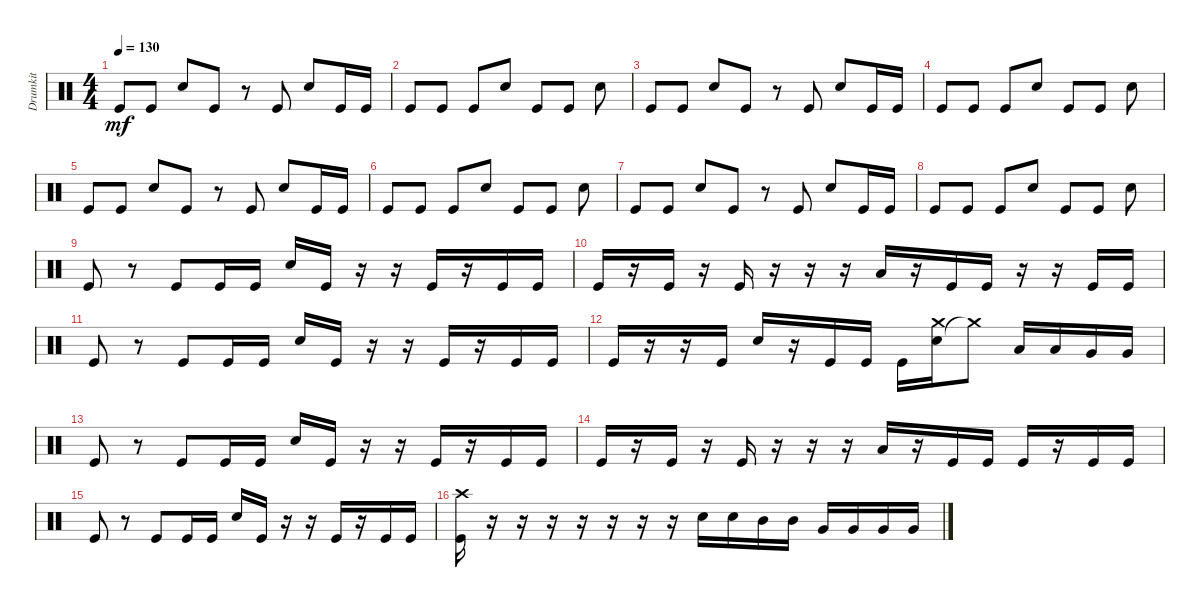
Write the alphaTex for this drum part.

\track ("Drumkit" "Drumkit") {instrument percussion}
\staff {score}
\articulation defaults
\ts (4 4)
\tempo 130
\clef neutral
\ks c "Kick (hit)".8{dy mf} "Kick (hit)".8 "Snare (hit) 2".8 "Kick (hit)".8
r.8 "Kick (hit)".8 "Snare (hit) 2".8 "Kick (hit)".16 "Kick (hit)".16 |
"Kick (hit)".8 "Kick (hit)".8 "Kick (hit)".8 "Snare (hit) 2".8 "Kick (hit)".8 "Kick (hit)".8 "Snare (hit) 2".8 |
"Kick (hit)".8 "Kick (hit)".8 "Snare (hit) 2".8 "Kick (hit)".8 r.8 "Kick (hit)".8 "Snare (hit) 2".8 "Kick (hit)".16 "Kick (hit)".16 |
"Kick (hit)".8 "Kick (hit)".8 "Kick (hit)".8 "Snare (hit) 2".8 "Kick (hit)".8 "Kick (hit)".8 "Snare (hit) 2".8 |
"Kick (hit)".8 "Kick (hit)".8 "Snare (hit) 2".8 "Kick (hit)".8 r.8 "Kick (hit)".8 "Snare (hit) 2".8 "Kick (hit)".16 "Kick (hit)".16 |
"Kick (hit)".8 "Kick (hit)".8 "Kick (hit)".8 "Snare (hit) 2".8 "Kick (hit)".8 "Kick (hit)".8 "Snare (hit) 2".8 |
"Kick (hit)".8 "Kick (hit)".8 "Snare (hit) 2".8 "Kick (hit)".8 r.8 "Kick (hit)".8 "Snare (hit) 2".8 "Kick (hit)".16 "Kick (hit)".16 |
"Kick (hit)".8 "Kick (hit)".8 "Kick (hit)".8 "Snare (hit) 2".8 "Kick (hit)".8 "Kick (hit)".8 "Snare (hit) 2".8 |
"Kick (hit)".8 r.8 "Kick (hit)".8 "Kick (hit)".16 "Kick (hit)".16 "Snare (hit) 2".16 "Kick (hit)".16 r.16 r.16 "Kick (hit)".16 r.16 "Kick (hit)".16 "Kick (hit)".16 |
"Kick (hit)".16 r.16 "Kick (hit)".16 r.16 "Kick (hit)".16 r.16 r.16 r.16 "Low Tom (hit)".16 r.16 "Kick (hit)".16 "Kick (hit)".16 r.16 r.16 "Kick (hit)".16 "Kick (hit)".16 |
"Kick (hit)".8 r.8 "Kick (hit)".8 "Kick (hit)".16 "Kick (hit)".16 "Snare (hit) 2".16 "Kick (hit)".16 r.16 r.16 "Kick (hit)".16 r.16 "Kick (hit)".16 "Kick (hit)".16 |
"Kick (hit)".16 r.16 r.16 "Kick (hit)".16 "Snare (hit) 2".16 r.16 "Kick (hit)".16 "Kick (hit)".16 "Kick (hit)".16 ("Snare (hit) 2" "Crash medium (hit)").16 "Crash medium (hit)"{t}.8 "Low Tom (hit)".16 "Low Tom (hit)".16 "Very Low Tom (hit)".16 "Very Low Tom (hit)".16 |
"Kick (hit)".8 r.8 "Kick (hit)".8 "Kick (hit)".16 "Kick (hit)".16 "Snare (hit) 2".16 "Kick (hit)".16 r.16 r.16 "Kick (hit)".16 r.16 "Kick (hit)".16 "Kick (hit)".16 |
"Kick (hit)".16 r.16 "Kick (hit)".16 r.16 "Kick (hit)".16 r.16 r.16 r.16 "Low Tom (hit)".16 r.16 "Kick (hit)".16 "Kick (hit)".16 "Kick (hit)".16 r.16 "Kick (hit)".16 "Kick (hit)".16 |
"Kick (hit)".8 r.8 "Kick (hit)".8 "Kick (hit)".16 "Kick (hit)".16 "Snare (hit) 2".16 "Kick (hit)".16 r.16 r.16 "Kick (hit)".16 r.16 "Kick (hit)".16 "Kick (hit)".16 |
("Crash high (hit)" "Kick (hit)").16 r.16 r.16 r.16 r.16 r.16 r.16 r.16 "Snare (hit) 2".16 "Snare (hit) 2".16 "Mid Tom (hit)".16 "Mid Tom (hit)".16 "Very Low Tom (hit)".16 "Very Low Tom (hit)".16 "Very Low Tom (hit)".16 "Very Low Tom (hit)".16
